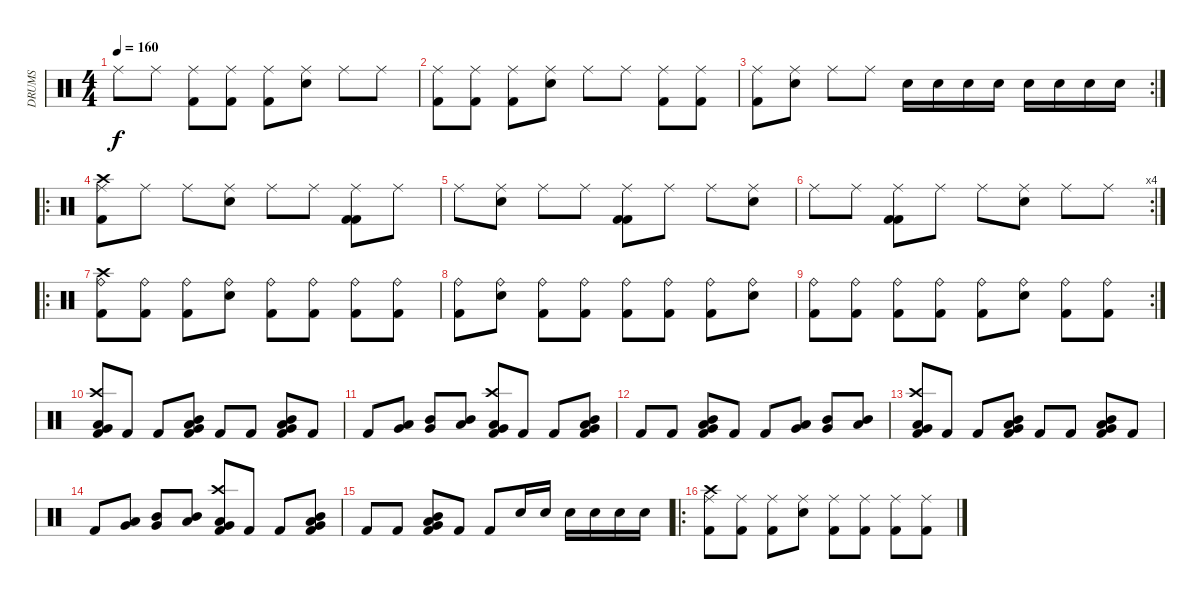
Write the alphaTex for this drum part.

\track ("DRUMS" "DRUMS") {instrument percussion}
\staff {score}
\articulation defaults
\ts (4 4)
\tempo 160
\clef neutral
\ks c "Ride (middle)".8{dy f} "Ride (middle)".8
("Kick (hit) 2" "Ride (middle)").8 ("Kick (hit) 2" "Ride (middle)").8 ("Kick (hit) 2" "Ride (middle)").8 ("Snare (hit) 2" "Ride (middle)").8 "Ride (middle)".8 "Ride (middle)".8 |
("Kick (hit) 2" "Ride (middle)").8 ("Kick (hit) 2" "Ride (middle)").8 ("Kick (hit) 2" "Ride (middle)").8 ("Snare (hit) 2" "Ride (middle)").8 "Ride (middle)".8 "Ride (middle)".8 ("Kick (hit) 2" "Ride (middle)").8 ("Kick (hit) 2" "Ride (middle)").8 |
\rc 2
("Kick (hit) 2" "Ride (middle)").8 ("Snare (hit) 2" "Ride (middle)").8 "Ride (middle)".8 "Ride (middle)".8 "Snare (hit) 2".16 "Snare (hit) 2".16 "Snare (hit) 2".16 "Snare (hit) 2".16 "Snare (hit) 2".16 "Snare (hit) 2".16 "Snare (hit) 2".16 "Snare (hit) 2".16 |
\ro
("Crash high (hit)" "Kick (hit) 2" "Ride (middle)").8 "Ride (middle)".8 "Ride (middle)".8 ("Snare (hit) 2" "Ride (middle)").8 "Ride (middle)".8 "Ride (middle)".8 ("Kick (hit) 2" "Kick (hit) 2" "Ride (middle)").8 "Ride (middle)".8 |
"Ride (middle)".8 ("Snare (hit) 2" "Ride (middle)").8 "Ride (middle)".8 "Ride (middle)".8 ("Kick (hit) 2" "Kick (hit) 2" "Ride (middle)").8 "Ride (middle)".8 "Ride (middle)".8 ("Snare (hit) 2" "Ride (middle)").8 |
\rc 4 "Ride (middle)".8 "Ride (middle)".8
("Kick (hit) 2" "Kick (hit) 2" "Ride (middle)").8 "Ride (middle)".8 "Ride (middle)".8 ("Snare (hit) 2" "Ride (middle)").8 "Ride (middle)".8 "Ride (middle)".8 |
\ro
("Crash high (hit)" "Ride (bell)" "Kick (hit) 2").8 ("Ride (bell)" "Kick (hit) 2").8 ("Ride (bell)" "Kick (hit) 2").8 ("Ride (bell)" "Snare (hit) 2").8 ("Ride (bell)" "Kick (hit) 2").8 ("Ride (bell)" "Kick (hit) 2").8 ("Ride (bell)" "Kick (hit) 2").8 ("Ride (bell)" "Kick (hit) 2").8 |
("Ride (bell)" "Kick (hit) 2").8 ("Ride (bell)" "Snare (hit) 2").8 ("Ride (bell)" "Kick (hit) 2").8 ("Ride (bell)" "Kick (hit) 2").8 ("Ride (bell)" "Kick (hit) 2").8 ("Ride (bell)" "Kick (hit) 2").8 ("Ride (bell)" "Kick (hit) 2").8 ("Ride (bell)" "Snare (hit) 2").8 |
\rc 2
("Ride (bell)" "Kick (hit) 2").8 ("Ride (bell)" "Kick (hit) 2").8 ("Ride (bell)" "Kick (hit) 2").8 ("Ride (bell)" "Kick (hit) 2").8 ("Ride (bell)" "Kick (hit) 2").8 ("Ride (bell)" "Snare (hit) 2").8 ("Ride (bell)" "Kick (hit) 2").8 ("Ride (bell)" "Kick (hit) 2").8 |
("Crash high (hit)" "Very Low Tom (hit)" "Kick (hit) 2" "Low Floor Tom (hit)").8 "Kick (hit) 2".8 "Kick (hit) 2".8 ("Mid Tom (hit)" "Very Low Tom (hit)" "Kick (hit) 2" "Low Floor Tom (hit)").8 "Kick (hit) 2".8 "Kick (hit) 2".8 ("Mid Tom (hit)" "Very Low Tom (hit)" "Kick (hit) 2" "Low Floor Tom (hit)").8 "Kick (hit) 2".8 |
"Kick (hit) 2".8 ("Very Low Tom (hit)" "Low Floor Tom (hit)").8 ("Mid Tom (hit)" "Very Low Tom (hit)").8 ("Low Tom (hit)" "Mid Tom (hit)").8 ("Crash high (hit)" "Very Low Tom (hit)" "Kick (hit) 2" "Low Floor Tom (hit)").8 "Kick (hit) 2".8 "Kick (hit) 2".8 ("Mid Tom (hit)" "Very Low Tom (hit)" "Kick (hit) 2" "Low Floor Tom (hit)").8 |
"Kick (hit) 2".8 "Kick (hit) 2".8 ("Mid Tom (hit)" "Very Low Tom (hit)" "Kick (hit) 2" "Low Floor Tom (hit)").8 "Kick (hit) 2".8 "Kick (hit) 2".8 ("Very Low Tom (hit)" "Low Floor Tom (hit)").8 ("Mid Tom (hit)" "Very Low Tom (hit)").8 ("Low Tom (hit)" "Mid Tom (hit)").8 |
("Crash high (hit)" "Very Low Tom (hit)" "Kick (hit) 2" "Low Floor Tom (hit)").8 "Kick (hit) 2".8 "Kick (hit) 2".8 ("Mid Tom (hit)" "Very Low Tom (hit)" "Kick (hit) 2" "Low Floor Tom (hit)").8 "Kick (hit) 2".8 "Kick (hit) 2".8 ("Mid Tom (hit)" "Very Low Tom (hit)" "Kick (hit) 2" "Low Floor Tom (hit)").8 "Kick (hit) 2".8 |
"Kick (hit) 2".8 ("Very Low Tom (hit)" "Low Floor Tom (hit)").8 ("Mid Tom (hit)" "Very Low Tom (hit)").8 ("Low Tom (hit)" "Mid Tom (hit)").8 ("Crash high (hit)" "Very Low Tom (hit)" "Kick (hit) 2" "Low Floor Tom (hit)").8 "Kick (hit) 2".8 "Kick (hit) 2".8 ("Mid Tom (hit)" "Very Low Tom (hit)" "Kick (hit) 2" "Low Floor Tom (hit)").8 |
"Kick (hit) 2".8 "Kick (hit) 2".8 ("Mid Tom (hit)" "Very Low Tom (hit)" "Kick (hit) 2" "Low Floor Tom (hit)").8 "Kick (hit) 2".8 "Kick (hit) 2".8 "Snare (hit) 2".16 "Snare (hit) 2".16 "Snare (hit) 2".16 "Snare (hit) 2".16 "Snare (hit) 2".16 "Snare (hit) 2".16 |
\ro
("Crash high (hit)" "Ride (middle)" "Kick (hit) 2").8 ("Ride (middle)" "Kick (hit) 2").8 ("Ride (middle)" "Kick (hit) 2").8 ("Ride (middle)" "Snare (hit) 2").8 ("Ride (middle)" "Kick (hit) 2").8 ("Ride (middle)" "Kick (hit) 2").8 ("Ride (middle)" "Kick (hit) 2").8 ("Ride (middle)" "Kick (hit) 2").8
